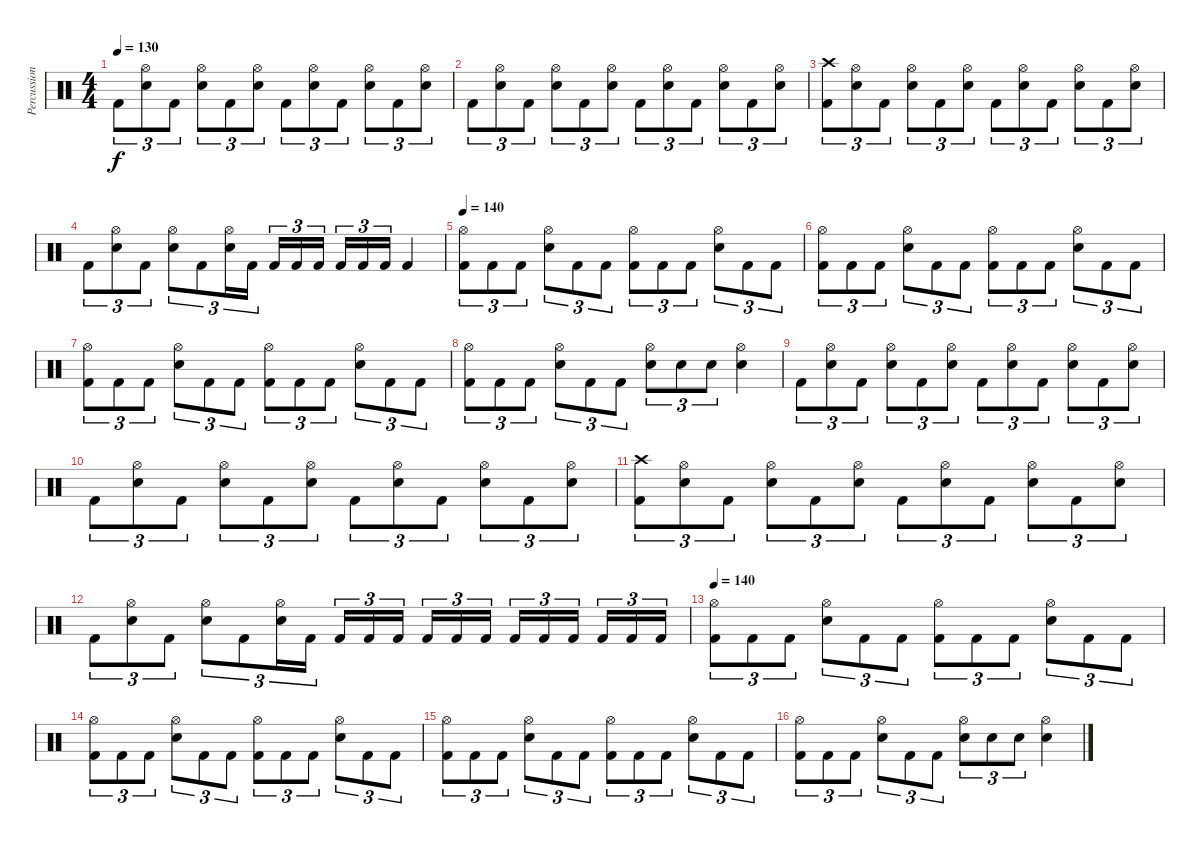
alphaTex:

\track ("Percussion" "Percussion") {instrument percussion}
\staff {score}
\articulation defaults
\ts (4 4)
\tempo 130
\clef neutral
\ks c "Kick (hit) 2".8{tu (3 2) dy f}
("Hi-Hat (open)" "Electric Snare (hit)").8{tu (3 2)} "Kick (hit) 2".8{tu (3 2)} ("Hi-Hat (open)" "Electric Snare (hit)").8{tu (3 2)} "Kick (hit) 2".8{tu (3 2)} ("Hi-Hat (open)" "Electric Snare (hit)").8{tu (3 2)} "Kick (hit) 2".8{tu (3 2)} ("Hi-Hat (open)" "Electric Snare (hit)").8{tu (3 2)} "Kick (hit) 2".8{tu (3 2)} ("Hi-Hat (open)" "Electric Snare (hit)").8{tu (3 2)} "Kick (hit) 2".8{tu (3 2)} ("Hi-Hat (open)" "Electric Snare (hit)").8{tu (3 2)} |
"Kick (hit) 2".8{tu (3 2)} ("Hi-Hat (open)" "Electric Snare (hit)").8{tu (3 2)} "Kick (hit) 2".8{tu (3 2)} ("Hi-Hat (open)" "Electric Snare (hit)").8{tu (3 2)} "Kick (hit) 2".8{tu (3 2)} ("Hi-Hat (open)" "Electric Snare (hit)").8{tu (3 2)} "Kick (hit) 2".8{tu (3 2)} ("Hi-Hat (open)" "Electric Snare (hit)").8{tu (3 2)} "Kick (hit) 2".8{tu (3 2)} ("Hi-Hat (open)" "Electric Snare (hit)").8{tu (3 2)} "Kick (hit) 2".8{tu (3 2)} ("Hi-Hat (open)" "Electric Snare (hit)").8{tu (3 2)} |
("Crash high (hit)" "Kick (hit) 2").8{tu (3 2)} ("Hi-Hat (open)" "Electric Snare (hit)").8{tu (3 2)} "Kick (hit) 2".8{tu (3 2)} ("Hi-Hat (open)" "Electric Snare (hit)").8{tu (3 2)} "Kick (hit) 2".8{tu (3 2)} ("Hi-Hat (open)" "Electric Snare (hit)").8{tu (3 2)} "Kick (hit) 2".8{tu (3 2)} ("Hi-Hat (open)" "Electric Snare (hit)").8{tu (3 2)} "Kick (hit) 2".8{tu (3 2)} ("Hi-Hat (open)" "Electric Snare (hit)").8{tu (3 2)} "Kick (hit) 2".8{tu (3 2)} ("Hi-Hat (open)" "Electric Snare (hit)").8{tu (3 2)} |
"Kick (hit) 2".8{tu (3 2)} ("Hi-Hat (open)" "Electric Snare (hit)").8{tu (3 2)} "Kick (hit) 2".8{tu (3 2)} ("Hi-Hat (open)" "Electric Snare (hit)").8{tu (3 2)} "Kick (hit) 2".8{tu (3 2)} ("Hi-Hat (open)" "Electric Snare (hit)").16{tu (3 2)} "Kick (hit) 2".16{tu (3 2)} "Kick (hit) 2".16{tu (3 2)} "Kick (hit) 2".16{tu (3 2)} "Kick (hit) 2".16{tu (3 2)} "Kick (hit) 2".16{tu (3 2)} "Kick (hit) 2".16{tu (3 2)} "Kick (hit) 2".16{tu (3 2)} "Kick (hit) 2".4 |
\tempo 140
("Hi-Hat (open)" "Kick (hit) 2").8{tu (3 2)} "Kick (hit) 2".8{tu (3 2)} "Kick (hit) 2".8{tu (3 2)} ("Hi-Hat (open)" "Electric Snare (hit)").8{tu (3 2)} "Kick (hit) 2".8{tu (3 2)} "Kick (hit) 2".8{tu (3 2)} ("Hi-Hat (open)" "Kick (hit) 2").8{tu (3 2)} "Kick (hit) 2".8{tu (3 2)} "Kick (hit) 2".8{tu (3 2)} ("Hi-Hat (open)" "Electric Snare (hit)").8{tu (3 2)} "Kick (hit) 2".8{tu (3 2)} "Kick (hit) 2".8{tu (3 2)} |
("Hi-Hat (open)" "Kick (hit) 2").8{tu (3 2)} "Kick (hit) 2".8{tu (3 2)} "Kick (hit) 2".8{tu (3 2)} ("Hi-Hat (open)" "Electric Snare (hit)").8{tu (3 2)} "Kick (hit) 2".8{tu (3 2)} "Kick (hit) 2".8{tu (3 2)} ("Hi-Hat (open)" "Kick (hit) 2").8{tu (3 2)} "Kick (hit) 2".8{tu (3 2)} "Kick (hit) 2".8{tu (3 2)} ("Hi-Hat (open)" "Electric Snare (hit)").8{tu (3 2)} "Kick (hit) 2".8{tu (3 2)} "Kick (hit) 2".8{tu (3 2)} |
("Hi-Hat (open)" "Kick (hit) 2").8{tu (3 2)} "Kick (hit) 2".8{tu (3 2)} "Kick (hit) 2".8{tu (3 2)} ("Hi-Hat (open)" "Electric Snare (hit)").8{tu (3 2)} "Kick (hit) 2".8{tu (3 2)} "Kick (hit) 2".8{tu (3 2)} ("Hi-Hat (open)" "Kick (hit) 2").8{tu (3 2)} "Kick (hit) 2".8{tu (3 2)} "Kick (hit) 2".8{tu (3 2)} ("Hi-Hat (open)" "Electric Snare (hit)").8{tu (3 2)} "Kick (hit) 2".8{tu (3 2)} "Kick (hit) 2".8{tu (3 2)} |
("Hi-Hat (open)" "Kick (hit) 2").8{tu (3 2)} "Kick (hit) 2".8{tu (3 2)} "Kick (hit) 2".8{tu (3 2)} ("Hi-Hat (open)" "Electric Snare (hit)").8{tu (3 2)} "Kick (hit) 2".8{tu (3 2)} "Kick (hit) 2".8{tu (3 2)} ("Hi-Hat (open)" "Electric Snare (hit)").8{tu (3 2)} "Electric Snare (hit)".8{tu (3 2)} "Electric Snare (hit)".8{tu (3 2)} ("Hi-Hat (open)" "Electric Snare (hit)").4 |
"Kick (hit) 2".8{tu (3 2)} ("Hi-Hat (open)" "Electric Snare (hit)").8{tu (3 2)} "Kick (hit) 2".8{tu (3 2)} ("Hi-Hat (open)" "Electric Snare (hit)").8{tu (3 2)} "Kick (hit) 2".8{tu (3 2)} ("Hi-Hat (open)" "Electric Snare (hit)").8{tu (3 2)} "Kick (hit) 2".8{tu (3 2)} ("Hi-Hat (open)" "Electric Snare (hit)").8{tu (3 2)} "Kick (hit) 2".8{tu (3 2)} ("Hi-Hat (open)" "Electric Snare (hit)").8{tu (3 2)} "Kick (hit) 2".8{tu (3 2)} ("Hi-Hat (open)" "Electric Snare (hit)").8{tu (3 2)} |
"Kick (hit) 2".8{tu (3 2)} ("Hi-Hat (open)" "Electric Snare (hit)").8{tu (3 2)} "Kick (hit) 2".8{tu (3 2)} ("Hi-Hat (open)" "Electric Snare (hit)").8{tu (3 2)} "Kick (hit) 2".8{tu (3 2)} ("Hi-Hat (open)" "Electric Snare (hit)").8{tu (3 2)} "Kick (hit) 2".8{tu (3 2)} ("Hi-Hat (open)" "Electric Snare (hit)").8{tu (3 2)} "Kick (hit) 2".8{tu (3 2)} ("Hi-Hat (open)" "Electric Snare (hit)").8{tu (3 2)} "Kick (hit) 2".8{tu (3 2)} ("Hi-Hat (open)" "Electric Snare (hit)").8{tu (3 2)} |
("Crash high (hit)" "Kick (hit) 2").8{tu (3 2)} ("Hi-Hat (open)" "Electric Snare (hit)").8{tu (3 2)} "Kick (hit) 2".8{tu (3 2)} ("Hi-Hat (open)" "Electric Snare (hit)").8{tu (3 2)} "Kick (hit) 2".8{tu (3 2)} ("Hi-Hat (open)" "Electric Snare (hit)").8{tu (3 2)} "Kick (hit) 2".8{tu (3 2)} ("Hi-Hat (open)" "Electric Snare (hit)").8{tu (3 2)} "Kick (hit) 2".8{tu (3 2)} ("Hi-Hat (open)" "Electric Snare (hit)").8{tu (3 2)} "Kick (hit) 2".8{tu (3 2)} ("Hi-Hat (open)" "Electric Snare (hit)").8{tu (3 2)} |
"Kick (hit) 2".8{tu (3 2)} ("Hi-Hat (open)" "Electric Snare (hit)").8{tu (3 2)} "Kick (hit) 2".8{tu (3 2)} ("Hi-Hat (open)" "Electric Snare (hit)").8{tu (3 2)} "Kick (hit) 2".8{tu (3 2)} ("Hi-Hat (open)" "Electric Snare (hit)").16{tu (3 2)} "Kick (hit) 2".16{tu (3 2)} "Kick (hit) 2".16{tu (3 2)} "Kick (hit) 2".16{tu (3 2)} "Kick (hit) 2".16{tu (3 2)} "Kick (hit) 2".16{tu (3 2)} "Kick (hit) 2".16{tu (3 2)} "Kick (hit) 2".16{tu (3 2)} "Kick (hit) 2".16{tu (3 2)} "Kick (hit) 2".16{tu (3 2)} "Kick (hit) 2".16{tu (3 2)} "Kick (hit) 2".16{tu (3 2)} "Kick (hit) 2".16{tu (3 2)} "Kick (hit) 2".16{tu (3 2)} |
\tempo 140
("Hi-Hat (open)" "Kick (hit) 2").8{tu (3 2)} "Kick (hit) 2".8{tu (3 2)} "Kick (hit) 2".8{tu (3 2)} ("Hi-Hat (open)" "Electric Snare (hit)").8{tu (3 2)} "Kick (hit) 2".8{tu (3 2)} "Kick (hit) 2".8{tu (3 2)} ("Hi-Hat (open)" "Kick (hit) 2").8{tu (3 2)} "Kick (hit) 2".8{tu (3 2)} "Kick (hit) 2".8{tu (3 2)} ("Hi-Hat (open)" "Electric Snare (hit)").8{tu (3 2)} "Kick (hit) 2".8{tu (3 2)} "Kick (hit) 2".8{tu (3 2)} |
("Hi-Hat (open)" "Kick (hit) 2").8{tu (3 2)} "Kick (hit) 2".8{tu (3 2)} "Kick (hit) 2".8{tu (3 2)} ("Hi-Hat (open)" "Electric Snare (hit)").8{tu (3 2)} "Kick (hit) 2".8{tu (3 2)} "Kick (hit) 2".8{tu (3 2)} ("Hi-Hat (open)" "Kick (hit) 2").8{tu (3 2)} "Kick (hit) 2".8{tu (3 2)} "Kick (hit) 2".8{tu (3 2)} ("Hi-Hat (open)" "Electric Snare (hit)").8{tu (3 2)} "Kick (hit) 2".8{tu (3 2)} "Kick (hit) 2".8{tu (3 2)} |
("Hi-Hat (open)" "Kick (hit) 2").8{tu (3 2)} "Kick (hit) 2".8{tu (3 2)} "Kick (hit) 2".8{tu (3 2)} ("Hi-Hat (open)" "Electric Snare (hit)").8{tu (3 2)} "Kick (hit) 2".8{tu (3 2)} "Kick (hit) 2".8{tu (3 2)} ("Hi-Hat (open)" "Kick (hit) 2").8{tu (3 2)} "Kick (hit) 2".8{tu (3 2)} "Kick (hit) 2".8{tu (3 2)} ("Hi-Hat (open)" "Electric Snare (hit)").8{tu (3 2)} "Kick (hit) 2".8{tu (3 2)} "Kick (hit) 2".8{tu (3 2)} |
("Hi-Hat (open)" "Kick (hit) 2").8{tu (3 2)} "Kick (hit) 2".8{tu (3 2)} "Kick (hit) 2".8{tu (3 2)} ("Hi-Hat (open)" "Electric Snare (hit)").8{tu (3 2)} "Kick (hit) 2".8{tu (3 2)} "Kick (hit) 2".8{tu (3 2)} ("Hi-Hat (open)" "Electric Snare (hit)").8{tu (3 2)} "Electric Snare (hit)".8{tu (3 2)} "Electric Snare (hit)".8{tu (3 2)} ("Hi-Hat (open)" "Electric Snare (hit)").4
